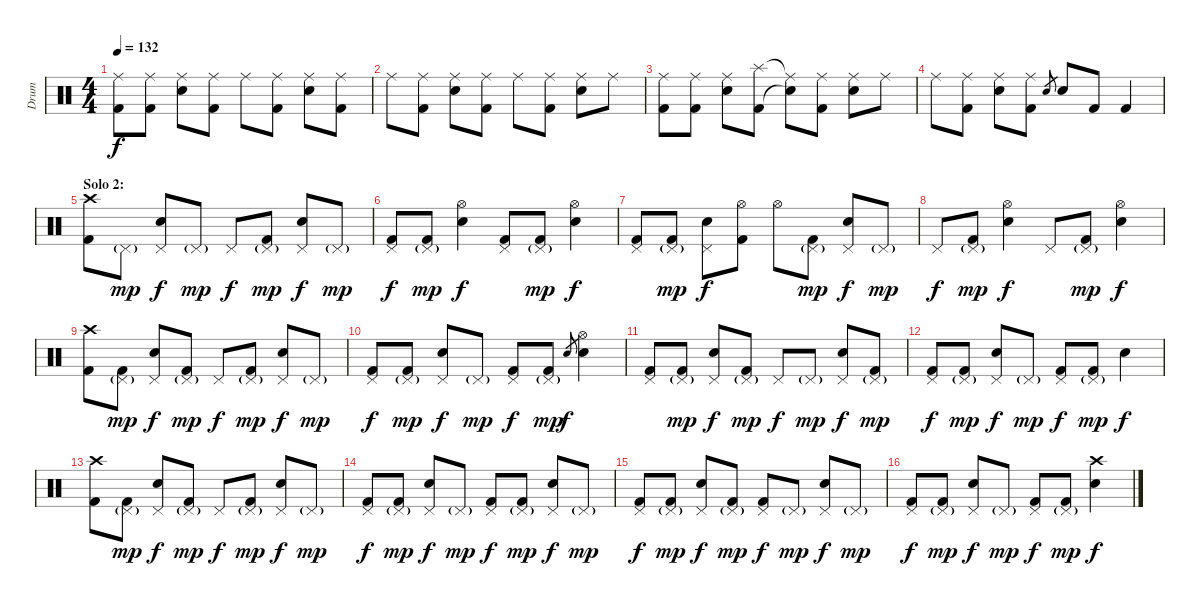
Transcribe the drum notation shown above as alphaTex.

\track ("Drum" "Drum") {instrument percussion}
\staff {score}
\articulation defaults
\ts (4 4)
\tempo 132
\clef neutral
\ks c
("Ride (middle)" "Kick (hit) 2").8{dy f} ("Ride (middle)" "Kick (hit) 2").8 ("Ride (middle)" "Snare (hit) 2").8 ("Ride (middle)" "Kick (hit) 2").8 "Ride (middle)".8 ("Ride (middle)" "Kick (hit) 2").8 ("Ride (middle)" "Snare (hit) 2").8 ("Ride (middle)" "Kick (hit) 2").8 |
"Ride (middle)".8 ("Ride (middle)" "Kick (hit) 2").8 ("Ride (middle)" "Snare (hit) 2").8 ("Ride (middle)" "Kick (hit) 2").8 "Ride (middle)".8 ("Ride (middle)" "Kick (hit) 2").8 ("Ride (middle)" "Snare (hit) 2").8 "Ride (middle)".8 |
("Ride (middle)" "Kick (hit) 2").8 ("Ride (middle)" "Kick (hit) 2").8 ("Ride (middle)" "Snare (hit) 2").8 ("Splash (hit)" "Kick (hit) 2").8 ("Ride (middle)"{t} "Snare (hit)"{t}).8 ("Ride (middle)" "Kick (hit) 2").8 ("Ride (middle)" "Snare (hit) 2").8 "Ride (middle)".8 |
"Ride (middle)".8 ("Ride (middle)" "Kick (hit) 2").8 ("Ride (middle)" "Snare (hit) 2").8 ("Ride (middle)" "Kick (hit) 2").8 "Snare (hit) 2".8{gr} "Snare (hit) 2".8 "Kick (hit) 2".8 "Kick (hit) 2".4 |
\section ("" "Solo 2:")
("Crash high (hit)" "Kick (hit) 2").8 "Pedal Hi-Hat (hit)"{g}.8{dy mp} ("Pedal Hi-Hat (hit)" "Snare (hit) 2").8{dy f} "Pedal Hi-Hat (hit)"{g}.8{dy mp} "Pedal Hi-Hat (hit)".8{dy f} ("Pedal Hi-Hat (hit)"{g} "Kick (hit) 2").8{dy mp} ("Pedal Hi-Hat (hit)" "Snare (hit) 2").8{dy f} "Pedal Hi-Hat (hit)"{g}.8{dy mp} |
("Pedal Hi-Hat (hit)" "Kick (hit) 2").8{dy f} ("Pedal Hi-Hat (hit)"{g} "Kick (hit) 2").8{dy mp} ("Hi-Hat (open)" "Snare (hit) 2").4{dy f} ("Pedal Hi-Hat (hit)" "Kick (hit) 2").8 ("Pedal Hi-Hat (hit)"{g} "Kick (hit) 2").8{dy mp} ("Hi-Hat (open)" "Snare (hit) 2").4{dy f} |
("Pedal Hi-Hat (hit)" "Kick (hit) 2").8 ("Pedal Hi-Hat (hit)"{g} "Kick (hit) 2").8{dy mp} ("Pedal Hi-Hat (hit)" "Snare (hit) 2").8{dy f} ("Hi-Hat (open)" "Kick (hit) 2").8 "Hi-Hat (open)".8 ("Pedal Hi-Hat (hit)"{g} "Kick (hit) 2").8{dy mp} ("Pedal Hi-Hat (hit)" "Snare (hit) 2").8{dy f} "Pedal Hi-Hat (hit)"{g}.8{dy mp} |
"Pedal Hi-Hat (hit)".8{dy f} ("Pedal Hi-Hat (hit)"{g} "Kick (hit) 2").8{dy mp} ("Hi-Hat (open)" "Snare (hit) 2").4{dy f} "Pedal Hi-Hat (hit)".8 ("Pedal Hi-Hat (hit)"{g} "Kick (hit) 2").8{dy mp} ("Hi-Hat (open)" "Snare (hit) 2").4{dy f} |
("Crash high (hit)" "Kick (hit) 2").8 ("Pedal Hi-Hat (hit)"{g} "Kick (hit) 2").8{dy mp} ("Pedal Hi-Hat (hit)" "Snare (hit) 2").8{dy f} ("Pedal Hi-Hat (hit)"{g} "Kick (hit) 2").8{dy mp} "Pedal Hi-Hat (hit)".8{dy f} ("Pedal Hi-Hat (hit)"{g} "Kick (hit) 2").8{dy mp} ("Pedal Hi-Hat (hit)" "Snare (hit) 2").8{dy f} "Pedal Hi-Hat (hit)"{g}.8{dy mp} |
("Pedal Hi-Hat (hit)" "Kick (hit) 2").8{dy f} ("Pedal Hi-Hat (hit)"{g} "Kick (hit) 2").8{dy mp} ("Pedal Hi-Hat (hit)" "Snare (hit) 2").8{dy f} "Pedal Hi-Hat (hit)"{g}.8{dy mp} ("Pedal Hi-Hat (hit)" "Kick (hit) 2").8{dy f} ("Pedal Hi-Hat (hit)"{g} "Kick (hit) 2").8{dy mp} "Snare (hit) 2".8{gr dy f} ("Hi-Hat (open)" "Snare (hit) 2").4 |
("Pedal Hi-Hat (hit)" "Kick (hit) 2").8 ("Pedal Hi-Hat (hit)"{g} "Kick (hit) 2").8{dy mp} ("Pedal Hi-Hat (hit)" "Snare (hit) 2").8{dy f} ("Pedal Hi-Hat (hit)"{g} "Kick (hit) 2").8{dy mp} "Pedal Hi-Hat (hit)".8{dy f} "Pedal Hi-Hat (hit)"{g}.8{dy mp} ("Pedal Hi-Hat (hit)" "Snare (hit) 2").8{dy f} ("Pedal Hi-Hat (hit)"{g} "Kick (hit) 2").8{dy mp} |
("Pedal Hi-Hat (hit)" "Kick (hit) 2").8{dy f} ("Pedal Hi-Hat (hit)"{g} "Kick (hit) 2").8{dy mp} ("Pedal Hi-Hat (hit)" "Snare (hit) 2").8{dy f} "Pedal Hi-Hat (hit)"{g}.8{dy mp} ("Pedal Hi-Hat (hit)" "Kick (hit) 2").8{dy f} ("Pedal Hi-Hat (hit)"{g} "Kick (hit) 2").8{dy mp} "Snare (hit) 2".4{dy f} |
("Crash high (hit)" "Kick (hit) 2").8 ("Pedal Hi-Hat (hit)"{g} "Kick (hit) 2").8{dy mp} ("Pedal Hi-Hat (hit)" "Snare (hit) 2").8{dy f} ("Pedal Hi-Hat (hit)"{g} "Kick (hit) 2").8{dy mp} "Pedal Hi-Hat (hit)".8{dy f} ("Pedal Hi-Hat (hit)"{g} "Kick (hit) 2").8{dy mp} ("Pedal Hi-Hat (hit)" "Snare (hit) 2").8{dy f} "Pedal Hi-Hat (hit)"{g}.8{dy mp} |
("Pedal Hi-Hat (hit)" "Kick (hit) 2").8{dy f} ("Pedal Hi-Hat (hit)"{g} "Kick (hit) 2").8{dy mp} ("Pedal Hi-Hat (hit)" "Snare (hit) 2").8{dy f} "Pedal Hi-Hat (hit)"{g}.8{dy mp} ("Pedal Hi-Hat (hit)" "Kick (hit) 2").8{dy f} ("Pedal Hi-Hat (hit)"{g} "Kick (hit) 2").8{dy mp} ("Pedal Hi-Hat (hit)" "Snare (hit) 2").8{dy f} "Pedal Hi-Hat (hit)"{g}.8{dy mp} |
("Pedal Hi-Hat (hit)" "Kick (hit) 2").8{dy f} ("Pedal Hi-Hat (hit)"{g} "Kick (hit) 2").8{dy mp} ("Pedal Hi-Hat (hit)" "Snare (hit) 2").8{dy f} ("Pedal Hi-Hat (hit)"{g} "Kick (hit) 2").8{dy mp} ("Pedal Hi-Hat (hit)" "Kick (hit) 2").8{dy f} "Pedal Hi-Hat (hit)"{g}.8{dy mp} ("Pedal Hi-Hat (hit)" "Snare (hit) 2").8{dy f} "Pedal Hi-Hat (hit)"{g}.8{dy mp} |
("Pedal Hi-Hat (hit)" "Kick (hit) 2").8{dy f} ("Pedal Hi-Hat (hit)"{g} "Kick (hit) 2").8{dy mp} ("Pedal Hi-Hat (hit)" "Snare (hit) 2").8{dy f} "Pedal Hi-Hat (hit)"{g}.8{dy mp} ("Pedal Hi-Hat (hit)" "Kick (hit) 2").8{dy f} ("Pedal Hi-Hat (hit)"{g} "Kick (hit) 2").8{dy mp} ("Crash high (hit)" "Snare (hit) 2").4{dy f}
